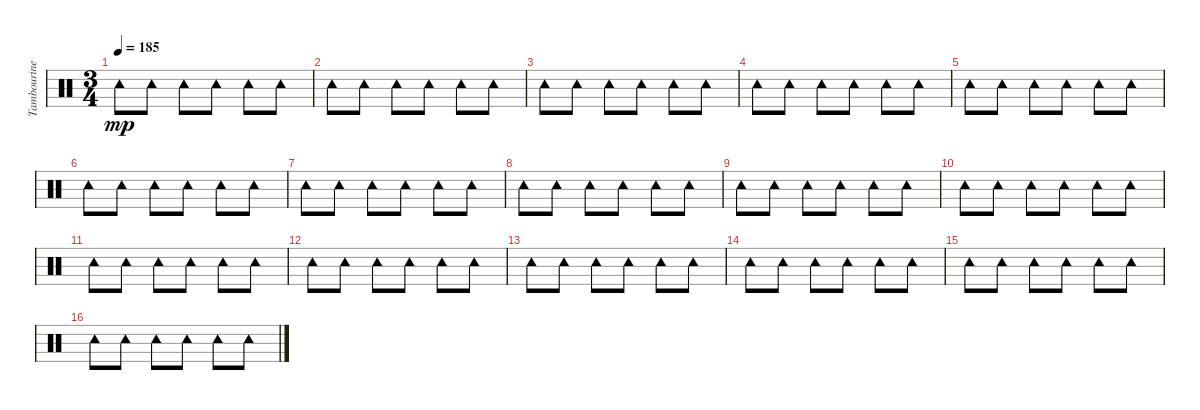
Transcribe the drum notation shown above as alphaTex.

\track ("Tambourine" "Tambourine") {instrument percussion}
\staff {score}
\articulation defaults
\ts (3 4)
\tempo 185
\clef neutral
\ks c "Tambourine (hit)".8{dy mp} "Tambourine (hit)".8 "Tambourine (hit)".8 "Tambourine (hit)".8 "Tambourine (hit)".8 "Tambourine (hit)".8
|
"Tambourine (hit)".8 "Tambourine (hit)".8 "Tambourine (hit)".8 "Tambourine (hit)".8 "Tambourine (hit)".8 "Tambourine (hit)".8 |
"Tambourine (hit)".8 "Tambourine (hit)".8 "Tambourine (hit)".8 "Tambourine (hit)".8 "Tambourine (hit)".8 "Tambourine (hit)".8 |
"Tambourine (hit)".8 "Tambourine (hit)".8 "Tambourine (hit)".8 "Tambourine (hit)".8 "Tambourine (hit)".8 "Tambourine (hit)".8 |
"Tambourine (hit)".8 "Tambourine (hit)".8 "Tambourine (hit)".8 "Tambourine (hit)".8 "Tambourine (hit)".8 "Tambourine (hit)".8 |
"Tambourine (hit)".8 "Tambourine (hit)".8 "Tambourine (hit)".8 "Tambourine (hit)".8 "Tambourine (hit)".8 "Tambourine (hit)".8 |
"Tambourine (hit)".8 "Tambourine (hit)".8 "Tambourine (hit)".8 "Tambourine (hit)".8 "Tambourine (hit)".8 "Tambourine (hit)".8 |
"Tambourine (hit)".8 "Tambourine (hit)".8 "Tambourine (hit)".8 "Tambourine (hit)".8 "Tambourine (hit)".8 "Tambourine (hit)".8 |
"Tambourine (hit)".8 "Tambourine (hit)".8 "Tambourine (hit)".8 "Tambourine (hit)".8 "Tambourine (hit)".8 "Tambourine (hit)".8 |
"Tambourine (hit)".8 "Tambourine (hit)".8 "Tambourine (hit)".8 "Tambourine (hit)".8 "Tambourine (hit)".8 "Tambourine (hit)".8 |
"Tambourine (hit)".8 "Tambourine (hit)".8 "Tambourine (hit)".8 "Tambourine (hit)".8 "Tambourine (hit)".8 "Tambourine (hit)".8 |
"Tambourine (hit)".8 "Tambourine (hit)".8 "Tambourine (hit)".8 "Tambourine (hit)".8 "Tambourine (hit)".8 "Tambourine (hit)".8 |
"Tambourine (hit)".8 "Tambourine (hit)".8 "Tambourine (hit)".8 "Tambourine (hit)".8 "Tambourine (hit)".8 "Tambourine (hit)".8 |
"Tambourine (hit)".8 "Tambourine (hit)".8 "Tambourine (hit)".8 "Tambourine (hit)".8 "Tambourine (hit)".8 "Tambourine (hit)".8 |
"Tambourine (hit)".8 "Tambourine (hit)".8 "Tambourine (hit)".8 "Tambourine (hit)".8 "Tambourine (hit)".8 "Tambourine (hit)".8 |
"Tambourine (hit)".8 "Tambourine (hit)".8 "Tambourine (hit)".8 "Tambourine (hit)".8 "Tambourine (hit)".8 "Tambourine (hit)".8
